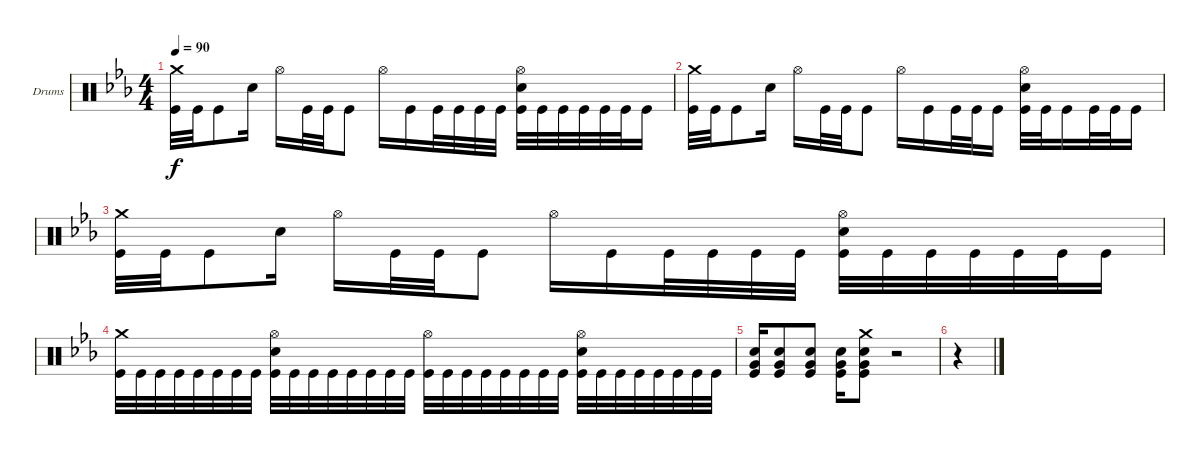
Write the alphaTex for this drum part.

\bracketExtendMode groupsimilarinstruments
\firstSystemTrackNameOrientation horizontal
\otherSystemsTrackNameOrientation horizontal
\track ("Drumkit" "Drums") {instrument percussion}
\staff {score}
\articulation defaults
\ts (4 4)
\tempo 90
\clef neutral
\scale
0.333333
\ks cminor
("Crash medium (hit)" "Kick (hit)").32{dy f} "Kick (hit)".32 "Kick (hit)".8 "Snare (hit) 2".16 "Hi-Hat (open)".16 "Kick (hit)".32 "Kick (hit)".32 "Kick (hit)".8 "Hi-Hat (open)".16 "Kick (hit)".16 "Kick (hit)".32 "Kick (hit)".32 "Kick (hit)".32 "Kick (hit)".32 ("Hi-Hat (open)" "Snare (hit) 2" "Kick (hit)").32 "Kick (hit)".32 "Kick (hit)".32 "Kick (hit)".32 "Kick (hit)".32 "Kick (hit)".32 "Kick (hit)".16 |
\scale
0.333333 ("Crash medium (hit)" "Kick (hit)").32 "Kick (hit)".32 "Kick (hit)".8 "Snare (hit) 2".16 "Hi-Hat (open)".16 "Kick (hit)".32 "Kick (hit)".32 "Kick (hit)".8 "Hi-Hat (open)".16 "Kick (hit)".16 "Kick (hit)".32 "Kick (hit)".32 "Kick (hit)".16 ("Hi-Hat (open)" "Snare (hit) 2" "Kick (hit)").32 "Kick (hit)".32 "Kick (hit)".16 "Kick (hit)".32 "Kick (hit)".32 "Kick (hit)".16 |
\scale
0.333333 ("Crash medium (hit)" "Kick (hit)").32 "Kick (hit)".32 "Kick (hit)".8 "Snare (hit) 2".16 "Hi-Hat (open)".16 "Kick (hit)".32 "Kick (hit)".32 "Kick (hit)".8 "Hi-Hat (open)".16 "Kick (hit)".16 "Kick (hit)".32 "Kick (hit)".32 "Kick (hit)".32 "Kick (hit)".32 ("Hi-Hat (open)" "Snare (hit) 2" "Kick (hit)").32 "Kick (hit)".32 "Kick (hit)".32 "Kick (hit)".32 "Kick (hit)".32 "Kick (hit)".32 "Kick (hit)".16 |
\scale
0.333333 ("Crash medium (hit)" "Kick (hit)").32 "Kick (hit)".32 "Kick (hit)".32 "Kick (hit)".32 "Kick (hit)".32 "Kick (hit)".32 "Kick (hit)".32 "Kick (hit)".32 ("Hi-Hat (open)" "Snare (hit) 2" "Kick (hit)").32 "Kick (hit)".32 "Kick (hit)".32 "Kick (hit)".32 "Kick (hit)".32 "Kick (hit)".32 "Kick (hit)".32 "Kick (hit)".32 ("Hi-Hat (open)" "Kick (hit)").32 "Kick (hit)".32 "Kick (hit)".32 "Kick (hit)".32 "Kick (hit)".32 "Kick (hit)".32 "Kick (hit)".32 "Kick (hit)".32 ("Hi-Hat (open)" "Snare (hit) 2" "Kick (hit)").32 "Kick (hit)".32 "Kick (hit)".32 "Kick (hit)".32 "Kick (hit)".32 "Kick (hit)".32 "Kick (hit)".32 "Kick (hit)".32 |
\scale
0.333333 ("Very Low Tom (hit)" "Snare (hit) 2" "Kick (hit)").16 ("Very Low Tom (hit)" "Snare (hit) 2" "Kick (hit)").8 ("Very Low Tom (hit)" "Snare (hit) 2" "Kick (hit)").8 ("Very Low Tom (hit)" "Snare (hit) 2" "Kick (hit)").16 ("Crash medium (hit)" "Very Low Tom (hit)" "Snare (hit) 2" "Kick (hit)").8 r.2 |
r.4
